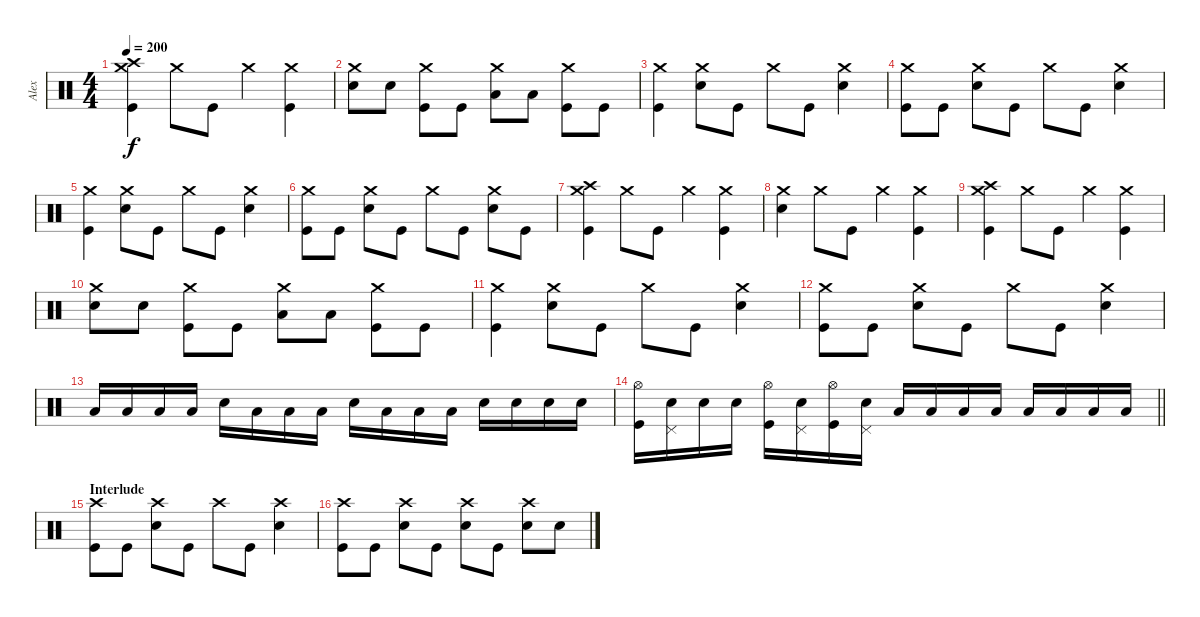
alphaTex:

\track ("Alex" "Alex") {instrument percussion}
\staff {score}
\articulation defaults
\ts (4 4)
\tempo 200
\clef neutral
\ks c
("Crash medium (hit)" "Crash high (hit)" "Kick (hit)").4{dy f} "Crash medium (hit)".8 "Kick (hit)".8 "Crash medium (hit)".4 ("Crash medium (hit)" "Kick (hit)").4 |
("Crash medium (hit)" "Snare (hit) 2").8 "Snare (hit) 2".8 ("Crash medium (hit)" "Kick (hit)").8 "Kick (hit)".8 ("Crash medium (hit)" "Low Tom (hit)").8 "Low Tom (hit)".8 ("Crash medium (hit)" "Kick (hit)").8 "Kick (hit)".8 |
("Crash medium (hit)" "Kick (hit)").4 ("Crash medium (hit)" "Snare (hit) 2").8 "Kick (hit)".8 "Crash medium (hit)".8 "Kick (hit)".8 ("Crash medium (hit)" "Snare (hit) 2").4 |
("Crash medium (hit)" "Kick (hit)").8 "Kick (hit)".8 ("Crash medium (hit)" "Snare (hit) 2").8 "Kick (hit)".8 "Crash medium (hit)".8 "Kick (hit)".8 ("Crash medium (hit)" "Snare (hit) 2").4 |
("Crash medium (hit)" "Kick (hit)").4 ("Crash medium (hit)" "Snare (hit) 2").8 "Kick (hit)".8 "Crash medium (hit)".8 "Kick (hit)".8 ("Crash medium (hit)" "Snare (hit) 2").4 |
("Crash medium (hit)" "Kick (hit)").8 "Kick (hit)".8 ("Crash medium (hit)" "Snare (hit) 2").8 "Kick (hit)".8 "Crash medium (hit)".8 "Kick (hit)".8 ("Crash medium (hit)" "Snare (hit) 2").8 "Kick (hit)".8 |
("Crash medium (hit)" "Crash high (hit)" "Kick (hit)").4 "Crash medium (hit)".8 "Kick (hit)".8 "Crash medium (hit)".4 ("Crash medium (hit)" "Kick (hit)").4 |
("Crash medium (hit)" "Snare (hit) 2").4 "Crash medium (hit)".8 "Kick (hit)".8 "Crash medium (hit)".4 ("Crash medium (hit)" "Kick (hit)").4 |
("Crash medium (hit)" "Crash high (hit)" "Kick (hit)").4 "Crash medium (hit)".8 "Kick (hit)".8 "Crash medium (hit)".4 ("Crash medium (hit)" "Kick (hit)").4 |
("Crash medium (hit)" "Snare (hit) 2").8 "Snare (hit) 2".8 ("Crash medium (hit)" "Kick (hit)").8 "Kick (hit)".8 ("Crash medium (hit)" "Low Tom (hit)").8 "Low Tom (hit)".8 ("Crash medium (hit)" "Kick (hit)").8 "Kick (hit)".8 |
("Crash medium (hit)" "Kick (hit)").4 ("Crash medium (hit)" "Snare (hit) 2").8 "Kick (hit)".8 "Crash medium (hit)".8 "Kick (hit)".8 ("Crash medium (hit)" "Snare (hit) 2").4 |
("Crash medium (hit)" "Kick (hit)").8 "Kick (hit)".8 ("Crash medium (hit)" "Snare (hit) 2").8 "Kick (hit)".8 "Crash medium (hit)".8 "Kick (hit)".8 ("Crash medium (hit)" "Snare (hit) 2").4 |
"Low Tom (hit)".16 "Low Tom (hit)".16 "Low Tom (hit)".16 "Low Tom (hit)".16 "Snare (hit) 2".16 "Low Tom (hit)".16 "Low Tom (hit)".16 "Low Tom (hit)".16 "Snare (hit) 2".16 "Low Tom (hit)".16 "Low Tom (hit)".16 "Low Tom (hit)".16 "Snare (hit) 2".16 "Snare (hit) 2".16 "Snare (hit) 2".16 "Snare (hit) 2".16 |
\barLineRight lightlight
("Hi-Hat (open)" "Kick (hit)").16 ("Snare (hit) 2" "Pedal Hi-Hat (hit)").16 "Snare (hit) 2".16 "Snare (hit) 2".16 ("Hi-Hat (open)" "Kick (hit)").16 ("Snare (hit) 2" "Pedal Hi-Hat (hit)").16 ("Hi-Hat (open)" "Kick (hit)").16 ("Snare (hit) 2" "Pedal Hi-Hat (hit)").16 "Low Tom (hit)".16 "Low Tom (hit)".16 "Low Tom (hit)".16 "Low Tom (hit)".16 "Low Floor Tom (hit)".16 "Low Floor Tom (hit)".16 "Low Floor Tom (hit)".16 "Low Floor Tom (hit)".16 |
\section ("" "Interlude")
("Crash high (hit)" "Kick (hit)").8 "Kick (hit)".8 ("Crash high (hit)" "Snare (hit) 2").8 "Kick (hit)".8 "Crash high (hit)".8 "Kick (hit)".8 ("Crash high (hit)" "Snare (hit) 2").4 |
("Crash high (hit)" "Kick (hit)").8 "Kick (hit)".8 ("Crash high (hit)" "Snare (hit) 2").8 "Kick (hit)".8 ("Crash high (hit)" "Snare (hit) 2").8 "Kick (hit)".8 ("Crash high (hit)" "Snare (hit) 2").8 "Snare (hit) 2".8
